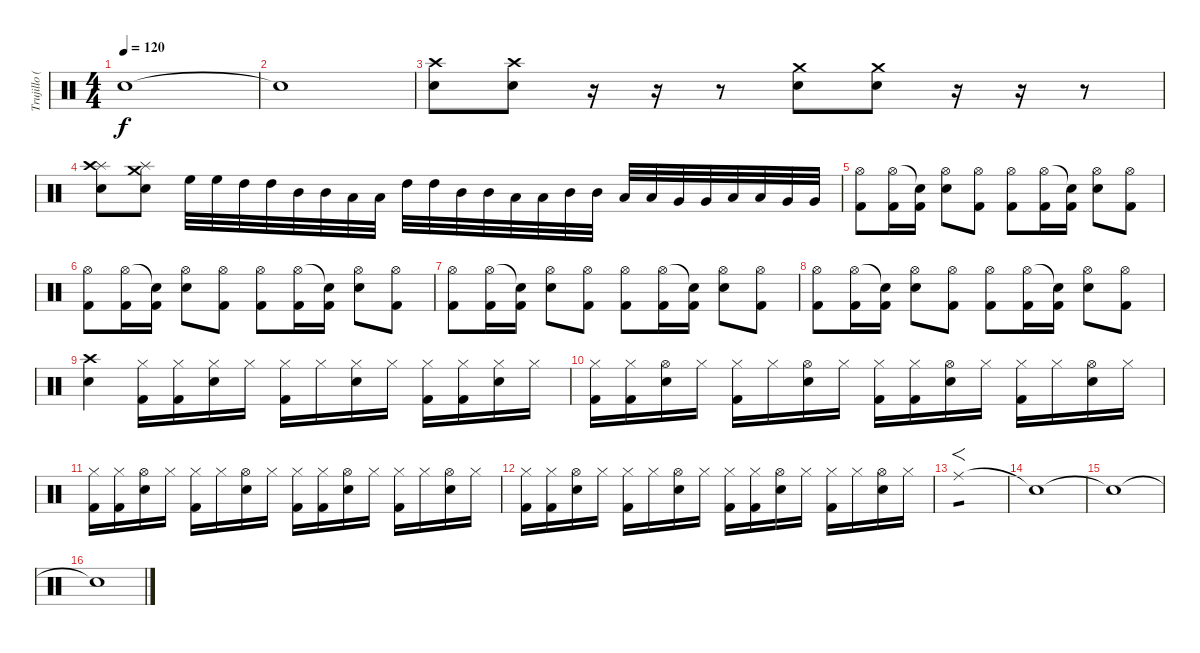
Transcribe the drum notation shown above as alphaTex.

\track ("Trujillo (Percussion)" "Trujillo (") {instrument percussion}
\staff {score}
\articulation defaults
\ts (4 4)
\tempo 120
\clef neutral
\ks c "Snare (hit)"{t}.1{dy f}
|
"Snare (hit)"{t}.1 |
("Crash high (hit)" "Electric Snare (hit)").8 ("Crash high (hit)" "Electric Snare (hit)").8 r.16 r.16 r.8 ("Crash medium (hit)" "Electric Snare (hit)").8 ("Crash medium (hit)" "Electric Snare (hit)").8 r.16 r.16 r.8 |
("Splash (hit)" "Crash high (hit)" "Electric Snare (hit)").8 ("Crash medium (hit)" "Splash (hit)" "Electric Snare (hit)").8 "High Floor Tom (hit)".32 "High Floor Tom (hit)".32 "High Tom (hit)".32 "High Tom (hit)".32 "Mid Tom (hit)".32 "Mid Tom (hit)".32 "Low Tom (hit)".32 "Low Tom (hit)".32 "High Tom (hit)".32 "High Tom (hit)".32 "Mid Tom (hit)".32 "Mid Tom (hit)".32 "Low Tom (hit)".32 "Low Tom (hit)".32 "Mid Tom (hit)".32 "Mid Tom (hit)".32 "Low Tom (hit)".32 "Low Tom (hit)".32 "Very Low Tom (hit)".32 "Very Low Tom (hit)".32 "Low Tom (hit)".32 "Low Tom (hit)".32 "Very Low Tom (hit)".32 "Very Low Tom (hit)".32 |
("Hi-Hat (open)" "Kick (hit) 2").8 ("Hi-Hat (open)" "Kick (hit) 2").16 ("Snare (hit)"{t} "Kick (hit) 2").16 ("Hi-Hat (open)" "Electric Snare (hit)").8 ("Hi-Hat (open)" "Kick (hit) 2").8 ("Hi-Hat (open)" "Kick (hit) 2").8 ("Hi-Hat (open)" "Kick (hit) 2").16 ("Snare (hit)"{t} "Kick (hit) 2").16 ("Hi-Hat (open)" "Electric Snare (hit)").8 ("Hi-Hat (open)" "Kick (hit) 2").8 |
("Hi-Hat (open)" "Kick (hit) 2").8 ("Hi-Hat (open)" "Kick (hit) 2").16 ("Snare (hit)"{t} "Kick (hit) 2").16 ("Hi-Hat (open)" "Electric Snare (hit)").8 ("Hi-Hat (open)" "Kick (hit) 2").8 ("Hi-Hat (open)" "Kick (hit) 2").8 ("Hi-Hat (open)" "Kick (hit) 2").16 ("Snare (hit)"{t} "Kick (hit) 2").16 ("Hi-Hat (open)" "Electric Snare (hit)").8 ("Hi-Hat (open)" "Kick (hit) 2").8 |
("Hi-Hat (open)" "Kick (hit) 2").8 ("Hi-Hat (open)" "Kick (hit) 2").16 ("Snare (hit)"{t} "Kick (hit) 2").16 ("Hi-Hat (open)" "Electric Snare (hit)").8 ("Hi-Hat (open)" "Kick (hit) 2").8 ("Hi-Hat (open)" "Kick (hit) 2").8 ("Hi-Hat (open)" "Kick (hit) 2").16 ("Snare (hit)"{t} "Kick (hit) 2").16 ("Hi-Hat (open)" "Electric Snare (hit)").8 ("Hi-Hat (open)" "Kick (hit) 2").8 |
("Hi-Hat (open)" "Kick (hit) 2").8 ("Hi-Hat (open)" "Kick (hit) 2").16 ("Snare (hit)"{t} "Kick (hit) 2").16 ("Hi-Hat (open)" "Electric Snare (hit)").8 ("Hi-Hat (open)" "Kick (hit) 2").8 ("Hi-Hat (open)" "Kick (hit) 2").8 ("Hi-Hat (open)" "Kick (hit) 2").16 ("Snare (hit)"{t} "Kick (hit) 2").16 ("Hi-Hat (open)" "Electric Snare (hit)").8 ("Hi-Hat (open)" "Kick (hit) 2").8 |
("Crash high (hit)" "Electric Snare (hit)").4 ("Hi-Hat (closed)" "Kick (hit) 2").16 ("Hi-Hat (closed)" "Kick (hit) 2").16 ("Hi-Hat (closed)" "Electric Snare (hit)").16 "Hi-Hat (closed)".16 ("Hi-Hat (closed)" "Kick (hit) 2").16 "Hi-Hat (closed)".16 ("Hi-Hat (closed)" "Electric Snare (hit)").16 "Hi-Hat (closed)".16 ("Hi-Hat (closed)" "Kick (hit) 2").16 ("Hi-Hat (closed)" "Kick (hit) 2").16 ("Hi-Hat (closed)" "Electric Snare (hit)").16 "Hi-Hat (closed)".16 |
("Hi-Hat (closed)" "Kick (hit) 2").16 ("Hi-Hat (closed)" "Kick (hit) 2").16 ("Hi-Hat (open)" "Electric Snare (hit)").16 "Hi-Hat (closed)".16 ("Hi-Hat (closed)" "Kick (hit) 2").16 "Hi-Hat (closed)".16 ("Hi-Hat (open)" "Electric Snare (hit)").16 "Hi-Hat (closed)".16 ("Hi-Hat (closed)" "Kick (hit) 2").16 ("Hi-Hat (closed)" "Kick (hit) 2").16 ("Hi-Hat (open)" "Electric Snare (hit)").16 "Hi-Hat (closed)".16 ("Hi-Hat (closed)" "Kick (hit) 2").16 "Hi-Hat (closed)".16 ("Hi-Hat (open)" "Electric Snare (hit)").16 "Hi-Hat (closed)".16 |
("Hi-Hat (closed)" "Kick (hit) 2").16 ("Hi-Hat (closed)" "Kick (hit) 2").16 ("Hi-Hat (open)" "Electric Snare (hit)").16 "Hi-Hat (closed)".16 ("Hi-Hat (closed)" "Kick (hit) 2").16 "Hi-Hat (closed)".16 ("Hi-Hat (open)" "Electric Snare (hit)").16 "Hi-Hat (closed)".16 ("Hi-Hat (closed)" "Kick (hit) 2").16 ("Hi-Hat (closed)" "Kick (hit) 2").16 ("Hi-Hat (open)" "Electric Snare (hit)").16 "Hi-Hat (closed)".16 ("Hi-Hat (closed)" "Kick (hit) 2").16 "Hi-Hat (closed)".16 ("Hi-Hat (open)" "Electric Snare (hit)").16 "Hi-Hat (closed)".16 |
("Hi-Hat (closed)" "Kick (hit) 2").16 ("Hi-Hat (closed)" "Kick (hit) 2").16 ("Hi-Hat (open)" "Electric Snare (hit)").16 "Hi-Hat (closed)".16 ("Hi-Hat (closed)" "Kick (hit) 2").16 "Hi-Hat (closed)".16 ("Hi-Hat (open)" "Electric Snare (hit)").16 "Hi-Hat (closed)".16 ("Hi-Hat (closed)" "Kick (hit) 2").16 ("Hi-Hat (closed)" "Kick (hit) 2").16 ("Hi-Hat (open)" "Electric Snare (hit)").16 "Hi-Hat (closed)".16 ("Hi-Hat (closed)" "Kick (hit) 2").16 "Hi-Hat (closed)".16 ("Hi-Hat (open)" "Electric Snare (hit)").16 "Hi-Hat (closed)".16 |
"Ride (middle)".1{f tp 1} |
"Snare (hit)"{t}.1 |
"Snare (hit)"{t}.1 |
"Snare (hit)"{t}.1
